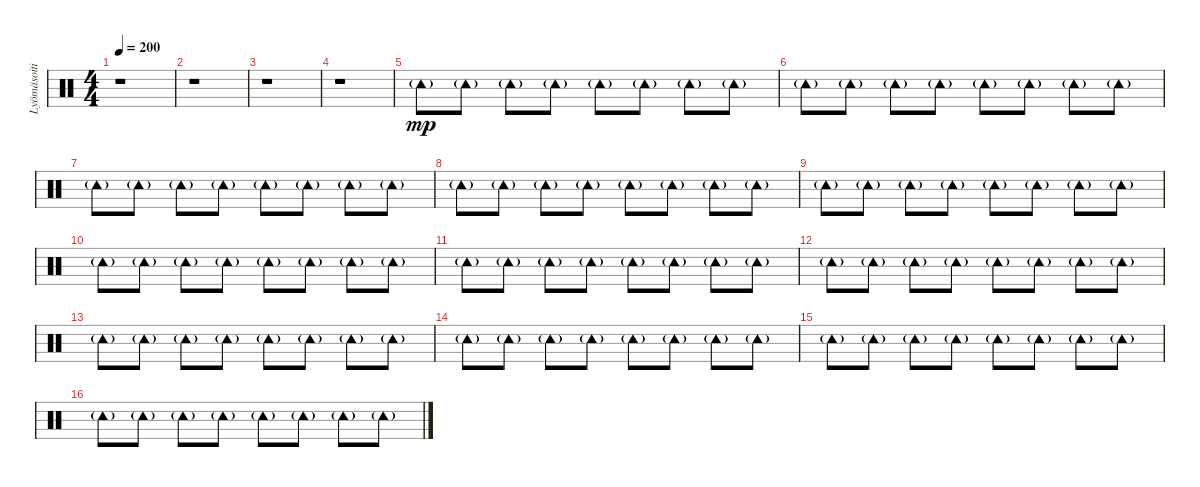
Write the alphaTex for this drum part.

\track ("Lyömäsoitin" "Lyömäsoiti") {instrument percussion}
\staff {score}
\articulation defaults
\ts (4 4)
\tempo 200
\clef neutral
\ks c
r.1{dy mp} |
r.1 |
r.1 |
r.1 |
"Tambourine (hit)"{g}.8 "Tambourine (hit)"{g}.8 "Tambourine (hit)"{g}.8 "Tambourine (hit)"{g}.8 "Tambourine (hit)"{g}.8 "Tambourine (hit)"{g}.8 "Tambourine (hit)"{g}.8 "Tambourine (hit)"{g}.8 |
"Tambourine (hit)"{g}.8 "Tambourine (hit)"{g}.8 "Tambourine (hit)"{g}.8 "Tambourine (hit)"{g}.8 "Tambourine (hit)"{g}.8 "Tambourine (hit)"{g}.8 "Tambourine (hit)"{g}.8 "Tambourine (hit)"{g}.8 |
"Tambourine (hit)"{g}.8 "Tambourine (hit)"{g}.8 "Tambourine (hit)"{g}.8 "Tambourine (hit)"{g}.8 "Tambourine (hit)"{g}.8 "Tambourine (hit)"{g}.8 "Tambourine (hit)"{g}.8 "Tambourine (hit)"{g}.8 |
"Tambourine (hit)"{g}.8 "Tambourine (hit)"{g}.8 "Tambourine (hit)"{g}.8 "Tambourine (hit)"{g}.8 "Tambourine (hit)"{g}.8 "Tambourine (hit)"{g}.8 "Tambourine (hit)"{g}.8 "Tambourine (hit)"{g}.8 |
"Tambourine (hit)"{g}.8 "Tambourine (hit)"{g}.8 "Tambourine (hit)"{g}.8 "Tambourine (hit)"{g}.8 "Tambourine (hit)"{g}.8 "Tambourine (hit)"{g}.8 "Tambourine (hit)"{g}.8 "Tambourine (hit)"{g}.8 |
"Tambourine (hit)"{g}.8 "Tambourine (hit)"{g}.8 "Tambourine (hit)"{g}.8 "Tambourine (hit)"{g}.8 "Tambourine (hit)"{g}.8 "Tambourine (hit)"{g}.8 "Tambourine (hit)"{g}.8 "Tambourine (hit)"{g}.8 |
"Tambourine (hit)"{g}.8 "Tambourine (hit)"{g}.8 "Tambourine (hit)"{g}.8 "Tambourine (hit)"{g}.8 "Tambourine (hit)"{g}.8 "Tambourine (hit)"{g}.8 "Tambourine (hit)"{g}.8 "Tambourine (hit)"{g}.8 |
"Tambourine (hit)"{g}.8 "Tambourine (hit)"{g}.8 "Tambourine (hit)"{g}.8 "Tambourine (hit)"{g}.8 "Tambourine (hit)"{g}.8 "Tambourine (hit)"{g}.8 "Tambourine (hit)"{g}.8 "Tambourine (hit)"{g}.8 |
"Tambourine (hit)"{g}.8 "Tambourine (hit)"{g}.8 "Tambourine (hit)"{g}.8 "Tambourine (hit)"{g}.8 "Tambourine (hit)"{g}.8 "Tambourine (hit)"{g}.8 "Tambourine (hit)"{g}.8 "Tambourine (hit)"{g}.8 |
"Tambourine (hit)"{g}.8 "Tambourine (hit)"{g}.8 "Tambourine (hit)"{g}.8 "Tambourine (hit)"{g}.8 "Tambourine (hit)"{g}.8 "Tambourine (hit)"{g}.8 "Tambourine (hit)"{g}.8 "Tambourine (hit)"{g}.8 |
"Tambourine (hit)"{g}.8 "Tambourine (hit)"{g}.8 "Tambourine (hit)"{g}.8 "Tambourine (hit)"{g}.8 "Tambourine (hit)"{g}.8 "Tambourine (hit)"{g}.8 "Tambourine (hit)"{g}.8 "Tambourine (hit)"{g}.8 |
"Tambourine (hit)"{g}.8 "Tambourine (hit)"{g}.8 "Tambourine (hit)"{g}.8 "Tambourine (hit)"{g}.8 "Tambourine (hit)"{g}.8 "Tambourine (hit)"{g}.8 "Tambourine (hit)"{g}.8 "Tambourine (hit)"{g}.8
